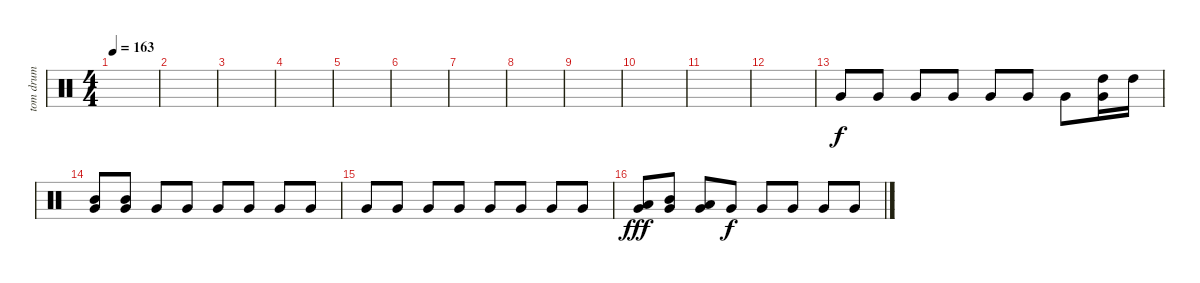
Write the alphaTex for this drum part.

\track ("tom drum" "tom drum") {instrument percussion}
\staff {score}
\articulation defaults
\ts (4 4)
\tempo 163
\clef neutral
\ks c
|
|
|
|
|
|
|
|
|
|
|
|
"Very Low Tom (hit)".8{dy f} "Very Low Tom (hit)".8 "Very Low Tom (hit)".8 "Very Low Tom (hit)".8 "Very Low Tom (hit)".8 "Very Low Tom (hit)".8 "Very Low Tom (hit)".8 ("Very Low Tom (hit)" "High Tom (hit)").16 "High Tom (hit)".16 |
("Very Low Tom (hit)" "Mid Tom (hit)").8 ("Very Low Tom (hit)" "Mid Tom (hit)").8 "Very Low Tom (hit)".8 "Very Low Tom (hit)".8 "Very Low Tom (hit)".8 "Very Low Tom (hit)".8 "Very Low Tom (hit)".8 "Very Low Tom (hit)".8 |
"Very Low Tom (hit)".8 "Very Low Tom (hit)".8 "Very Low Tom (hit)".8 "Very Low Tom (hit)".8 "Very Low Tom (hit)".8 "Very Low Tom (hit)".8 "Very Low Tom (hit)".8 "Very Low Tom (hit)".8 |
("Very Low Tom (hit)" "Low Tom (hit)").8{dy fff} ("Very Low Tom (hit)" "Mid Tom (hit)").8 ("Very Low Tom (hit)" "Low Tom (hit)").8 "Very Low Tom (hit)".8{dy f} "Very Low Tom (hit)".8 "Very Low Tom (hit)".8 "Very Low Tom (hit)".8 "Very Low Tom (hit)".8
